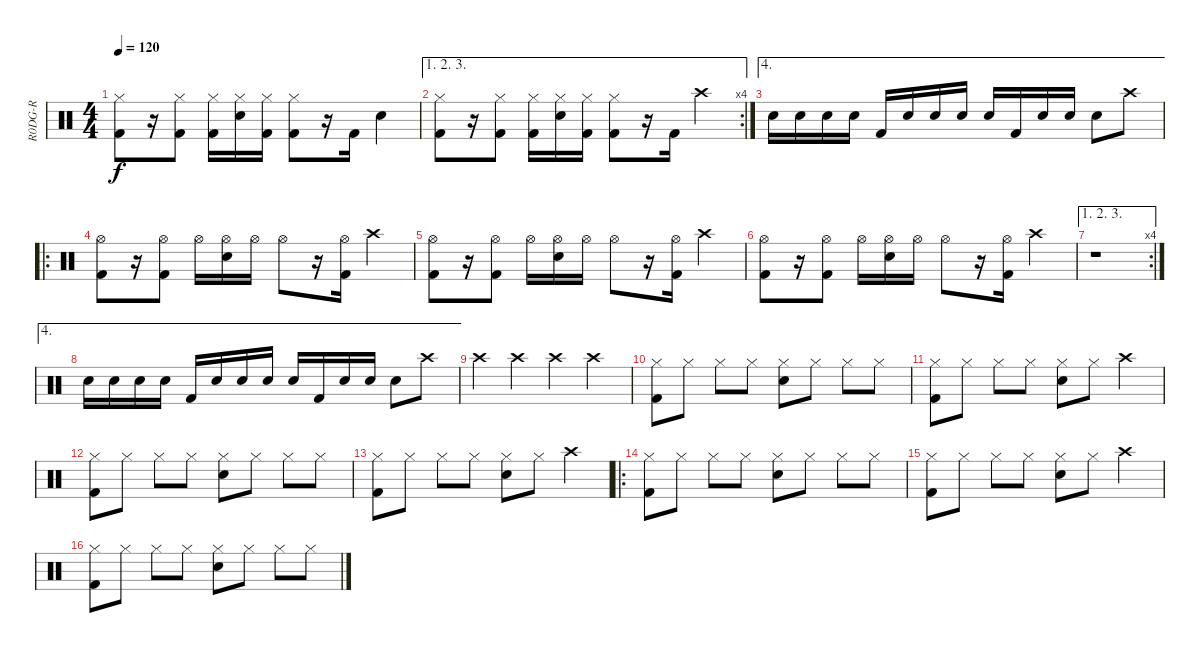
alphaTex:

\track ("R0DG-R" "R0DG-R") {instrument percussion}
\staff {score}
\articulation defaults
\ts (4 4)
\tempo 120
\clef neutral
\ks c
("Hi-Hat (closed)" "Kick (hit) 2").8{dy f} r.16 ("Hi-Hat (closed)" "Kick (hit) 2").8 ("Hi-Hat (closed)" "Kick (hit) 2").16 ("Hi-Hat (closed)" "Electric Snare (hit)").16 ("Hi-Hat (closed)" "Kick (hit) 2").16 ("Hi-Hat (closed)" "Kick (hit) 2").8 r.16 "Kick (hit) 2".16 "Electric Snare (hit)".4 |
\ae (1 2 3)
\rc 4
("Hi-Hat (closed)" "Kick (hit) 2").8 r.16 ("Hi-Hat (closed)" "Kick (hit) 2").8 ("Hi-Hat (closed)" "Kick (hit) 2").16 ("Hi-Hat (closed)" "Electric Snare (hit)").16 ("Hi-Hat (closed)" "Kick (hit) 2").16 ("Hi-Hat (closed)" "Kick (hit) 2").8 r.16 "Kick (hit) 2".16 "Crash high (hit)".4 |
\ae 4 "Electric Snare (hit)".16 "Electric Snare (hit)".16 "Electric Snare (hit)".16 "Electric Snare (hit)".16 "Kick (hit) 2".16 "Electric Snare (hit)".16 "Electric Snare (hit)".16 "Electric Snare (hit)".16 "Electric Snare (hit)".16 "Kick (hit) 2".16 "Electric Snare (hit)".16 "Electric Snare (hit)".16 "Electric Snare (hit)".8 "Crash high (hit)".8
|
\ro
("Hi-Hat (open)" "Kick (hit) 2").8 r.16 ("Hi-Hat (open)" "Kick (hit) 2").8 "Hi-Hat (open)".16 ("Hi-Hat (open)" "Electric Snare (hit)").16 "Hi-Hat (open)".16 "Hi-Hat (open)".8 r.16 ("Hi-Hat (open)" "Kick (hit) 2").16 "Crash high (hit)".4 |
("Hi-Hat (open)" "Kick (hit) 2").8 r.16 ("Hi-Hat (open)" "Kick (hit) 2").8 "Hi-Hat (open)".16 ("Hi-Hat (open)" "Electric Snare (hit)").16 "Hi-Hat (open)".16 "Hi-Hat (open)".8 r.16 ("Hi-Hat (open)" "Kick (hit) 2").16 "Crash high (hit)".4 |
("Hi-Hat (open)" "Kick (hit) 2").8 r.16 ("Hi-Hat (open)" "Kick (hit) 2").8 "Hi-Hat (open)".16 ("Hi-Hat (open)" "Electric Snare (hit)").16 "Hi-Hat (open)".16 "Hi-Hat (open)".8 r.16 ("Hi-Hat (open)" "Kick (hit) 2").16 "Crash high (hit)".4 |
\ae (1 2 3)
\rc 4
r.1 |
\ae 4 "Electric Snare (hit)".16 "Electric Snare (hit)".16 "Electric Snare (hit)".16 "Electric Snare (hit)".16 "Kick (hit) 2".16 "Electric Snare (hit)".16 "Electric Snare (hit)".16 "Electric Snare (hit)".16 "Electric Snare (hit)".16 "Kick (hit) 2".16 "Electric Snare (hit)".16 "Electric Snare (hit)".16 "Electric Snare (hit)".8 "Crash high (hit)".8
|
"Crash high (hit)".4 "Crash high (hit)".4 "Crash high (hit)".4 "Crash high (hit)".4 |
("Hi-Hat (closed)" "Kick (hit) 2").8 "Hi-Hat (closed)".8 "Hi-Hat (closed)".8 "Hi-Hat (closed)".8 ("Hi-Hat (closed)" "Electric Snare (hit)").8 "Hi-Hat (closed)".8 "Hi-Hat (closed)".8 "Hi-Hat (closed)".8 |
("Hi-Hat (closed)" "Kick (hit) 2").8 "Hi-Hat (closed)".8 "Hi-Hat (closed)".8 "Hi-Hat (closed)".8 ("Hi-Hat (closed)" "Electric Snare (hit)").8 "Hi-Hat (closed)".8 "Crash high (hit)".4 |
("Hi-Hat (closed)" "Kick (hit) 2").8 "Hi-Hat (closed)".8 "Hi-Hat (closed)".8 "Hi-Hat (closed)".8 ("Hi-Hat (closed)" "Electric Snare (hit)").8 "Hi-Hat (closed)".8 "Hi-Hat (closed)".8 "Hi-Hat (closed)".8 |
("Hi-Hat (closed)" "Kick (hit) 2").8 "Hi-Hat (closed)".8 "Hi-Hat (closed)".8 "Hi-Hat (closed)".8 ("Hi-Hat (closed)" "Electric Snare (hit)").8 "Hi-Hat (closed)".8 "Crash high (hit)".4 |
\ro
("Hi-Hat (closed)" "Kick (hit) 2").8 "Hi-Hat (closed)".8 "Hi-Hat (closed)".8 "Hi-Hat (closed)".8 ("Hi-Hat (closed)" "Electric Snare (hit)").8 "Hi-Hat (closed)".8 "Hi-Hat (closed)".8 "Hi-Hat (closed)".8 |
("Hi-Hat (closed)" "Kick (hit) 2").8 "Hi-Hat (closed)".8 "Hi-Hat (closed)".8 "Hi-Hat (closed)".8 ("Hi-Hat (closed)" "Electric Snare (hit)").8 "Hi-Hat (closed)".8 "Crash high (hit)".4 |
("Hi-Hat (closed)" "Kick (hit) 2").8 "Hi-Hat (closed)".8 "Hi-Hat (closed)".8 "Hi-Hat (closed)".8 ("Hi-Hat (closed)" "Electric Snare (hit)").8 "Hi-Hat (closed)".8 "Hi-Hat (closed)".8 "Hi-Hat (closed)".8
